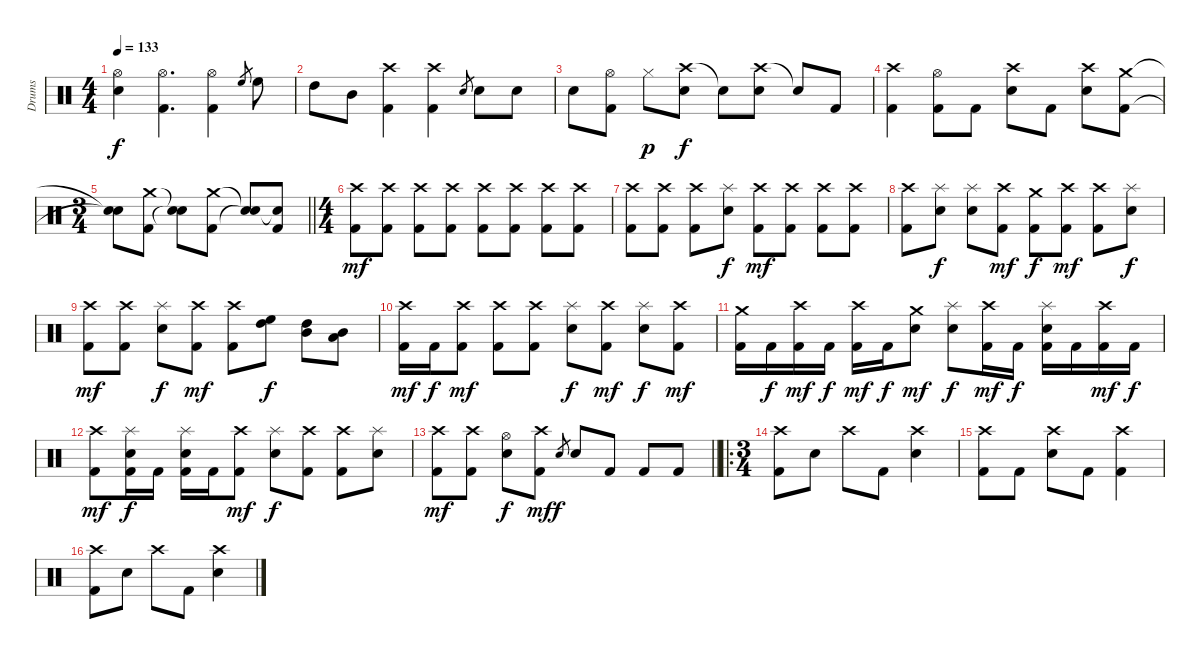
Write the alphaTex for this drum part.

\track ("Drums" "Drums") {instrument percussion}
\staff {score}
\articulation defaults
\ts (4 4)
\tempo 133
\clef neutral
\ks c
("Hi-Hat (open)"{t} "Snare (hit)"{t}).4{dy f} ("Hi-Hat (open)" "Kick (hit) 2").4{d} ("Hi-Hat (open)" "Kick (hit) 2").4 "High Floor Tom (hit)".8{gr} "High Floor Tom (hit)".8 |
"High Tom (hit)".8 "Mid Tom (hit)".8 ("Crash high (hit)" "Kick (hit) 2").4 ("Crash high (hit)" "Kick (hit) 2").4 "Electric Snare (hit)".8{gr} "Electric Snare (hit)".8 "Electric Snare (hit)".8 |
"Electric Snare (hit)".8 ("Hi-Hat (open)" "Kick (hit) 2").8 "Hi-Hat (closed)".8{dy p} ("Crash high (hit)" "Electric Snare (hit)").8{dy f} "Snare (hit)"{t}.8 ("Crash high (hit)" "Electric Snare (hit)").8 "Snare (hit)"{t}.8 "Kick (hit) 2".8 |
("Crash high (hit)" "Kick (hit) 2").4 ("Hi-Hat (open)" "Kick (hit) 2").8 "Kick (hit) 2".8 ("Crash high (hit)" "Electric Snare (hit)").8 "Kick (hit) 2".8 ("Crash high (hit)" "Electric Snare (hit)").8 ("Crash medium (hit)" "Kick (hit) 2").8 |
\ts (3 4)
\barLineRight lightlight
("Snare (hit)"{t} "Snare (hit)"{t}).8 ("Crash medium (hit)" "Kick (hit) 2").8 ("Snare (hit)"{t} "Snare (hit)"{t}).8 ("Crash medium (hit)" "Kick (hit) 2").8 ("Snare (hit)"{t} "Snare (hit)"{t}).8 ("Snare (hit)"{t} "Kick (hit) 2").8 |
\ts (4 4)
("Crash high (hit)" "Kick (hit) 2").8{dy mf} ("Crash high (hit)" "Kick (hit) 2").8 ("Crash high (hit)" "Kick (hit) 2").8 ("Crash high (hit)" "Kick (hit) 2").8 ("Crash high (hit)" "Kick (hit) 2").8 ("Crash high (hit)" "Kick (hit) 2").8 ("Crash high (hit)" "Kick (hit) 2").8 ("Crash high (hit)" "Kick (hit) 2").8 |
("Crash high (hit)" "Kick (hit) 2").8 ("Crash high (hit)" "Kick (hit) 2").8 ("Crash high (hit)" "Kick (hit) 2").8 ("Splash (hit)" "Electric Snare (hit)").8{dy f} ("Crash high (hit)" "Kick (hit) 2").8{dy mf} ("Crash high (hit)" "Kick (hit) 2").8 ("Crash high (hit)" "Kick (hit) 2").8 ("Crash high (hit)" "Kick (hit) 2").8 |
("Crash high (hit)" "Kick (hit) 2").8 ("Splash (hit)" "Electric Snare (hit)").8{dy f} ("Splash (hit)" "Electric Snare (hit)").8 ("Crash high (hit)" "Kick (hit) 2").8{dy mf} ("Crash medium (hit)" "Kick (hit) 2").8{dy f} ("Crash high (hit)" "Kick (hit) 2").8{dy mf} ("Crash high (hit)" "Kick (hit) 2").8 ("Splash (hit)" "Electric Snare (hit)").8{dy f} |
("Crash high (hit)" "Kick (hit) 2").8{dy mf} ("Crash high (hit)" "Kick (hit) 2").8 ("Splash (hit)" "Electric Snare (hit)").8{dy f} ("Crash high (hit)" "Kick (hit) 2").8{dy mf} ("Crash high (hit)" "Kick (hit) 2").8 ("High Floor Tom (hit)" "High Tom (hit)").8{dy f} ("High Tom (hit)" "Mid Tom (hit)").8 ("Mid Tom (hit)" "Low Tom (hit)").8 |
("Crash high (hit)" "Kick (hit) 2").16{dy mf} "Kick (hit) 2".16{dy f} ("Crash high (hit)" "Kick (hit) 2").8{dy mf} ("Crash high (hit)" "Kick (hit) 2").8 ("Crash high (hit)" "Kick (hit) 2").8 ("Splash (hit)" "Electric Snare (hit)").8{dy f} ("Crash high (hit)" "Kick (hit) 2").8{dy mf} ("Splash (hit)" "Electric Snare (hit)").8{dy f} ("Crash high (hit)" "Kick (hit) 2").8{dy mf} |
("Crash medium (hit)" "Kick (hit) 2").16 "Kick (hit) 2".16{dy f} ("Crash high (hit)" "Kick (hit) 2").16{dy mf} "Kick (hit) 2".16{dy f} ("Crash high (hit)" "Kick (hit) 2").16{dy mf} "Kick (hit) 2".16{dy f} ("Crash medium (hit)" "Electric Snare (hit)").8{dy mf} ("Splash (hit)" "Electric Snare (hit)").8{dy f} ("Crash high (hit)" "Kick (hit) 2").16{dy mf} "Kick (hit) 2".16{dy f} ("Splash (hit)" "Electric Snare (hit)" "Kick (hit) 2").16 "Kick (hit) 2".16 ("Crash high (hit)" "Kick (hit) 2").16{dy mf} "Kick (hit) 2".16{dy f} |
("Crash high (hit)" "Kick (hit) 2").8{dy mf} ("Splash (hit)" "Electric Snare (hit)" "Kick (hit) 2").16{dy f} "Kick (hit) 2".16 ("Splash (hit)" "Electric Snare (hit)" "Kick (hit) 2").16 "Kick (hit) 2".16 ("Crash high (hit)" "Kick (hit) 2").8{dy mf} ("Splash (hit)" "Electric Snare (hit)").8{dy f} ("Crash high (hit)" "Kick (hit) 2").8 ("Crash high (hit)" "Kick (hit) 2").8 ("Splash (hit)" "Electric Snare (hit)").8 |
\barLineRight lightlight
("Crash high (hit)" "Kick (hit) 2").8{dy mf} ("Crash high (hit)" "Kick (hit) 2").8 ("Hi-Hat (open)" "Electric Snare (hit)").8{dy f} ("Crash high (hit)" "Kick (hit) 2").8{dy mf} "Electric Snare (hit)".8{gr dy f} "Electric Snare (hit)".8 "Kick (hit) 2".8 "Kick (hit) 2".8 "Kick (hit) 2".8 |
\ro
\ts (3 4)
("Crash high (hit)" "Kick (hit) 2").8 "Electric Snare (hit)".8 "Crash high (hit)".8 "Kick (hit) 2".8 ("Crash high (hit)" "Electric Snare (hit)").4 |
("Crash high (hit)" "Kick (hit) 2").8 "Kick (hit) 2".8 ("Crash high (hit)" "Electric Snare (hit)").8 "Kick (hit) 2".8 ("Crash high (hit)" "Kick (hit) 2").4 |
("Crash high (hit)" "Kick (hit) 2").8 "Electric Snare (hit)".8 "Crash high (hit)".8 "Kick (hit) 2".8 ("Crash high (hit)" "Electric Snare (hit)").4
